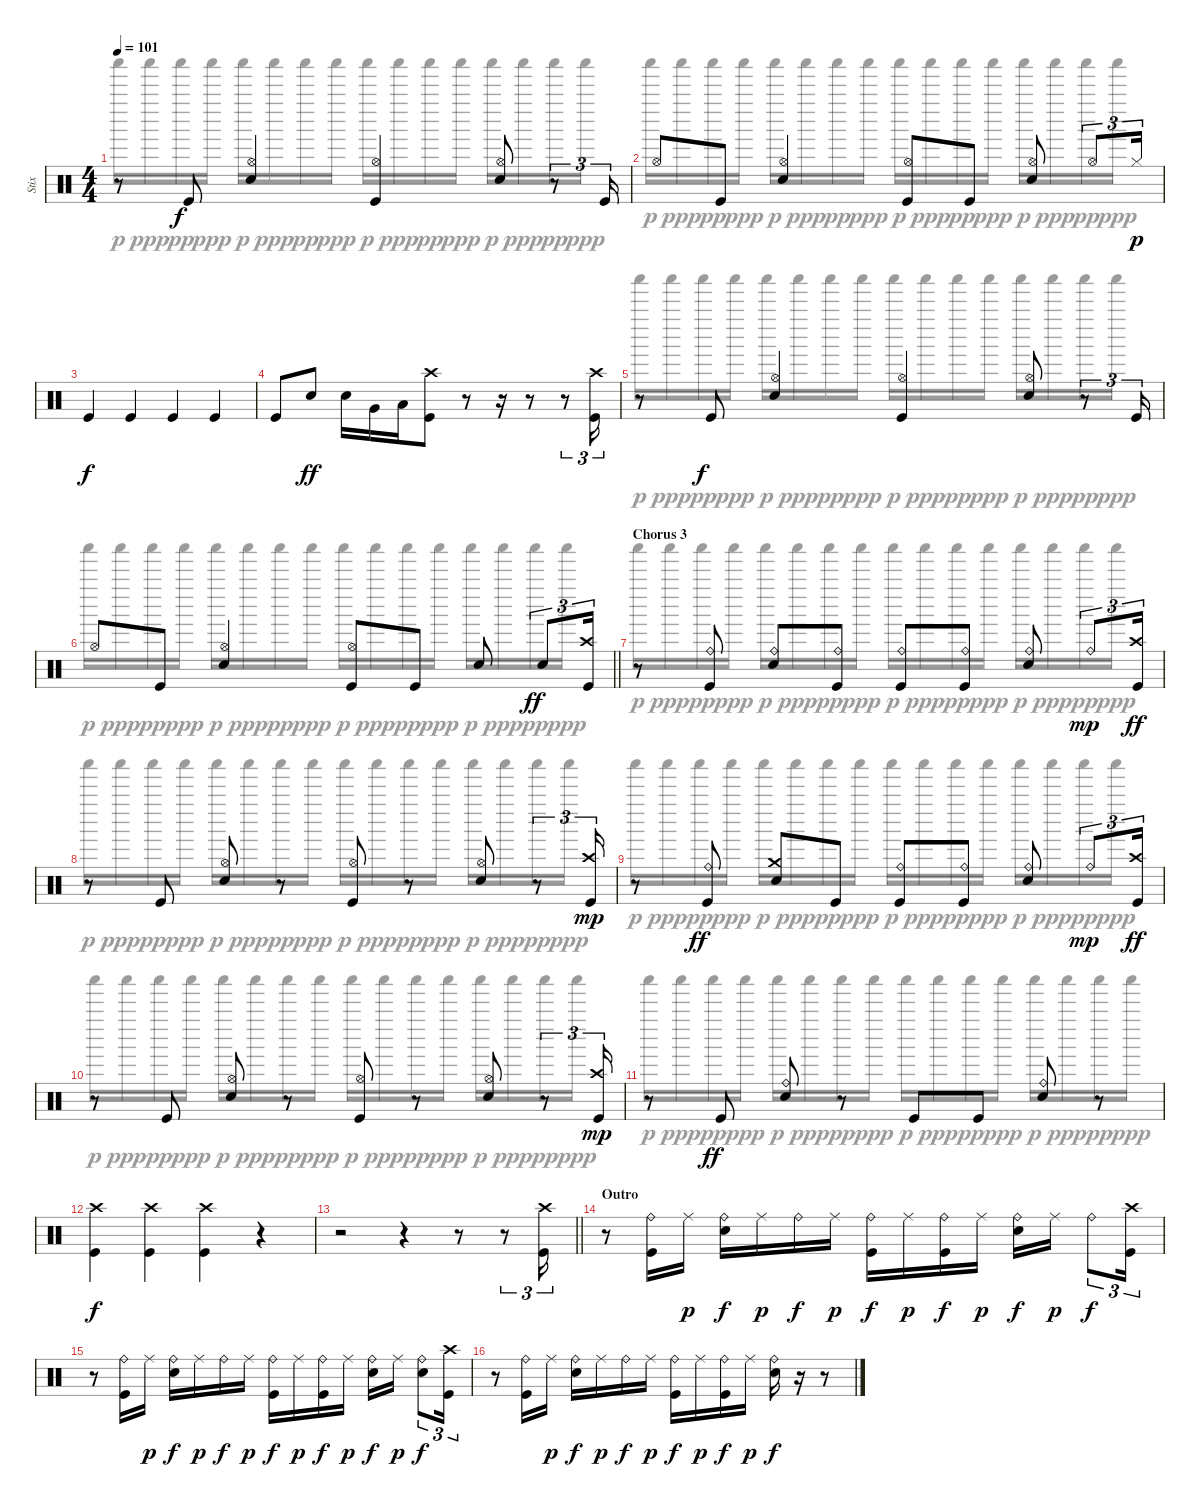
\track ("Stix" "Stix") {instrument percussion}
\staff {score}
\articulation defaults
\voice
\ts (4 4)
\tempo 101
\clef neutral
\ks c
r.8{dy f} "Kick (hit)".8 ("Hi-Hat (open)" "Electric Snare (hit)").4 ("Hi-Hat (open)" "Kick (hit)").4 ("Hi-Hat (open)" "Electric Snare (hit)").8 r.8{tu (3 2)} "Kick (hit)".16{tu (3 2)} |
"Hi-Hat (open)".8 "Kick (hit)".8 ("Hi-Hat (open)" "Electric Snare (hit)").4 ("Hi-Hat (open)" "Kick (hit)").8 "Kick (hit)".8 ("Hi-Hat (open)" "Electric Snare (hit)").8 "Hi-Hat (open)".8{tu (3 2)} "Hi-Hat (closed)".16{tu (3 2) dy p} |
"Kick (hit)".4{dy f} "Kick (hit)".4 "Kick (hit)".4 "Kick (hit)".4 |
"Kick (hit)".8 "Electric Snare (hit)".8{dy ff} "Electric Snare (hit)".16 "Very Low Tom (hit)".16 "Low Floor Tom (hit)".16 ("Crash high (hit)" "Kick (hit)").8 r.8 r.16 r.8 r.8{tu (3 2)} ("Crash high (hit)" "Kick (hit)").16{tu (3 2)} |
r.8 "Kick (hit)".8{dy f} ("Hi-Hat (open)" "Electric Snare (hit)").4 ("Hi-Hat (open)" "Kick (hit)").4 ("Hi-Hat (open)" "Electric Snare (hit)").8 r.8{tu (3 2)} "Kick (hit)".16{tu (3 2)} |
\barLineRight lightlight "Hi-Hat (open)".8 "Kick (hit)".8
("Hi-Hat (open)" "Electric Snare (hit)").4 ("Hi-Hat (open)" "Kick (hit)").8 "Kick (hit)".8 "Electric Snare (hit)".8 "Electric Snare (hit)".8{tu (3 2) dy ff} ("Crash high (hit)" "Kick (hit)").16{tu (3 2)} |
\section ("" "Chorus 3")
r.8 ("Ride (bell)" "Kick (hit)").8 ("Ride (bell)" "Electric Snare (hit)").8 ("Ride (bell)" "Kick (hit)").8 ("Ride (bell)" "Kick (hit)").8 ("Ride (bell)" "Kick (hit)").8 ("Ride (bell)" "Electric Snare (hit)").8 "Ride (bell)".8{tu (3 2) dy mp} ("Crash high (hit)" "Kick (hit)").16{tu (3 2) dy ff} |
r.8 "Kick (hit)".8 ("Hi-Hat (open)" "Electric Snare (hit)").8 r.8 ("Hi-Hat (open)" "Kick (hit)").8 r.8 ("Hi-Hat (open)" "Electric Snare (hit)").8 r.8{tu (3 2)} ("Crash high (hit)" "Kick (hit)").16{tu (3 2) dy mp} |
r.8 ("Ride (bell)" "Kick (hit)").8{dy ff} ("Crash medium (hit)" "Electric Snare (hit)").8 "Kick (hit)".8 ("Ride (bell)" "Kick (hit)").8 ("Ride (bell)" "Kick (hit)").8 ("Ride (bell)" "Electric Snare (hit)").8 "Ride (bell)".8{tu (3 2) dy mp} ("Crash high (hit)" "Kick (hit)").16{tu (3 2) dy ff} |
r.8 "Kick (hit)".8 ("Hi-Hat (open)" "Electric Snare (hit)").8 r.8 ("Hi-Hat (open)" "Kick (hit)").8 r.8 ("Hi-Hat (open)" "Electric Snare (hit)").8 r.8{tu (3 2)} ("Crash high (hit)" "Kick (hit)").16{tu (3 2) dy mp} |
r.8 "Kick (hit)".8{dy ff} ("Ride (bell)" "Electric Snare (hit)").8 r.8 "Kick (hit)".8 "Kick (hit)".8 ("Ride (bell)" "Electric Snare (hit)").8 r.8 |
("Crash high (hit)" "Kick (hit)").4{dy f} ("Crash high (hit)" "Kick (hit)").4 ("Crash high (hit)" "Kick (hit)").4 r.4 |
\barLineRight lightlight
r.2 r.4 r.8 r.8{tu (3 2)} ("Crash high (hit)" "Kick (hit)").16{tu (3 2)} |
\section ("" "Outro")
r.8 ("Ride (bell)" "Kick (hit)").16 "Ride (middle)".16{dy p} ("Ride (bell)" "Electric Snare (hit)").16{dy f} "Ride (middle)".16{dy p} "Ride (bell)".16{dy f} "Ride (middle)".16{dy p} ("Ride (bell)" "Kick (hit)").16{dy f} "Ride (middle)".16{dy p} ("Ride (bell)" "Kick (hit)").16{dy f} "Ride (middle)".16{dy p} ("Ride (bell)" "Electric Snare (hit)").16{dy f} "Ride (middle)".16{dy p} "Ride (bell)".8{tu (3 2) dy f} ("Crash high (hit)" "Kick (hit)").16{tu (3 2)} |
r.8 ("Ride (bell)" "Kick (hit)").16 "Ride (middle)".16{dy p} ("Ride (bell)" "Electric Snare (hit)").16{dy f} "Ride (middle)".16{dy p} "Ride (bell)".16{dy f} "Ride (middle)".16{dy p} ("Ride (bell)" "Kick (hit)").16{dy f} "Ride (middle)".16{dy p} ("Ride (bell)" "Kick (hit)").16{dy f} "Ride (middle)".16{dy p} ("Ride (bell)" "Electric Snare (hit)").16{dy f} "Ride (middle)".16{dy p} ("Ride (bell)" "Electric Snare (hit)").8{tu (3 2) dy f} ("Crash high (hit)" "Kick (hit)").16{tu (3 2)} |
r.8 ("Ride (bell)" "Kick (hit)").16 "Ride (middle)".16{dy p} ("Ride (bell)" "Electric Snare (hit)").16{dy f} "Ride (middle)".16{dy p} "Ride (bell)".16{dy f} "Ride (middle)".16{dy p} ("Ride (bell)" "Kick (hit)").16{dy f} "Ride (middle)".16{dy p} ("Ride (bell)" "Kick (hit)").16{dy f} "Ride (middle)".16{dy p} ("Ride (bell)" "Electric Snare (hit)").16{dy f} r.16 r.8
\voice
\clef neutral
\ottava regular
\simile none
\ks c "Shaker (hit)".16{dy p} "Shaker (hit)".16{dy ppp} "Shaker (hit)".16{dy pp} "Shaker (hit)".16{dy ppp} "Shaker (hit)".16{dy p} "Shaker (hit)".16{dy ppp} "Shaker (hit)".16{dy pp} "Shaker (hit)".16{dy ppp} "Shaker (hit)".16{dy p} "Shaker (hit)".16{dy ppp} "Shaker (hit)".16{dy pp} "Shaker (hit)".16{dy ppp} "Shaker (hit)".16{dy p} "Shaker (hit)".16{dy ppp} "Shaker (hit)".16{dy pp} "Shaker (hit)".16{dy ppp}
|
"Shaker (hit)".16{dy p} "Shaker (hit)".16{dy ppp} "Shaker (hit)".16{dy pp} "Shaker (hit)".16{dy ppp} "Shaker (hit)".16{dy p} "Shaker (hit)".16{dy ppp} "Shaker (hit)".16{dy pp} "Shaker (hit)".16{dy ppp} "Shaker (hit)".16{dy p} "Shaker (hit)".16{dy ppp} "Shaker (hit)".16{dy pp} "Shaker (hit)".16{dy ppp} "Shaker (hit)".16{dy p} "Shaker (hit)".16{dy ppp} "Shaker (hit)".16{dy pp} "Shaker (hit)".16{dy ppp} |
|
|
"Shaker (hit)".16{dy p} "Shaker (hit)".16{dy ppp} "Shaker (hit)".16{dy pp} "Shaker (hit)".16{dy ppp} "Shaker (hit)".16{dy p} "Shaker (hit)".16{dy ppp} "Shaker (hit)".16{dy pp} "Shaker (hit)".16{dy ppp} "Shaker (hit)".16{dy p} "Shaker (hit)".16{dy ppp} "Shaker (hit)".16{dy pp} "Shaker (hit)".16{dy ppp} "Shaker (hit)".16{dy p} "Shaker (hit)".16{dy ppp} "Shaker (hit)".16{dy pp} "Shaker (hit)".16{dy ppp} |
\barLineRight lightlight "Shaker (hit)".16{dy p} "Shaker (hit)".16{dy ppp} "Shaker (hit)".16{dy pp} "Shaker (hit)".16{dy ppp} "Shaker (hit)".16{dy p} "Shaker (hit)".16{dy ppp} "Shaker (hit)".16{dy pp} "Shaker (hit)".16{dy ppp} "Shaker (hit)".16{dy p} "Shaker (hit)".16{dy ppp} "Shaker (hit)".16{dy pp} "Shaker (hit)".16{dy ppp} "Shaker (hit)".16{dy p} "Shaker (hit)".16{dy ppp} "Shaker (hit)".16{dy pp} "Shaker (hit)".16{dy ppp}
|
"Shaker (hit)".16{dy p} "Shaker (hit)".16{dy ppp} "Shaker (hit)".16{dy pp} "Shaker (hit)".16{dy ppp} "Shaker (hit)".16{dy p} "Shaker (hit)".16{dy ppp} "Shaker (hit)".16{dy pp} "Shaker (hit)".16{dy ppp} "Shaker (hit)".16{dy p} "Shaker (hit)".16{dy ppp} "Shaker (hit)".16{dy pp} "Shaker (hit)".16{dy ppp} "Shaker (hit)".16{dy p} "Shaker (hit)".16{dy ppp} "Shaker (hit)".16{dy pp} "Shaker (hit)".16{dy ppp} |
"Shaker (hit)".16{dy p} "Shaker (hit)".16{dy ppp} "Shaker (hit)".16{dy pp} "Shaker (hit)".16{dy ppp} "Shaker (hit)".16{dy p} "Shaker (hit)".16{dy ppp} "Shaker (hit)".16{dy pp} "Shaker (hit)".16{dy ppp} "Shaker (hit)".16{dy p} "Shaker (hit)".16{dy ppp} "Shaker (hit)".16{dy pp} "Shaker (hit)".16{dy ppp} "Shaker (hit)".16{dy p} "Shaker (hit)".16{dy ppp} "Shaker (hit)".16{dy pp} "Shaker (hit)".16{dy ppp} |
"Shaker (hit)".16{dy p} "Shaker (hit)".16{dy ppp} "Shaker (hit)".16{dy pp} "Shaker (hit)".16{dy ppp} "Shaker (hit)".16{dy p} "Shaker (hit)".16{dy ppp} "Shaker (hit)".16{dy pp} "Shaker (hit)".16{dy ppp} "Shaker (hit)".16{dy p} "Shaker (hit)".16{dy ppp} "Shaker (hit)".16{dy pp} "Shaker (hit)".16{dy ppp} "Shaker (hit)".16{dy p} "Shaker (hit)".16{dy ppp} "Shaker (hit)".16{dy pp} "Shaker (hit)".16{dy ppp} |
"Shaker (hit)".16{dy p} "Shaker (hit)".16{dy ppp} "Shaker (hit)".16{dy pp} "Shaker (hit)".16{dy ppp} "Shaker (hit)".16{dy p} "Shaker (hit)".16{dy ppp} "Shaker (hit)".16{dy pp} "Shaker (hit)".16{dy ppp} "Shaker (hit)".16{dy p} "Shaker (hit)".16{dy ppp} "Shaker (hit)".16{dy pp} "Shaker (hit)".16{dy ppp} "Shaker (hit)".16{dy p} "Shaker (hit)".16{dy ppp} "Shaker (hit)".16{dy pp} "Shaker (hit)".16{dy ppp} |
"Shaker (hit)".16{dy p} "Shaker (hit)".16{dy ppp} "Shaker (hit)".16{dy pp} "Shaker (hit)".16{dy ppp} "Shaker (hit)".16{dy p} "Shaker (hit)".16{dy ppp} "Shaker (hit)".16{dy pp} "Shaker (hit)".16{dy ppp} "Shaker (hit)".16{dy p} "Shaker (hit)".16{dy ppp} "Shaker (hit)".16{dy pp} "Shaker (hit)".16{dy ppp} "Shaker (hit)".16{dy p} "Shaker (hit)".16{dy ppp} "Shaker (hit)".16{dy pp} "Shaker (hit)".16{dy ppp} |
|
\barLineRight lightlight
|
|
|
